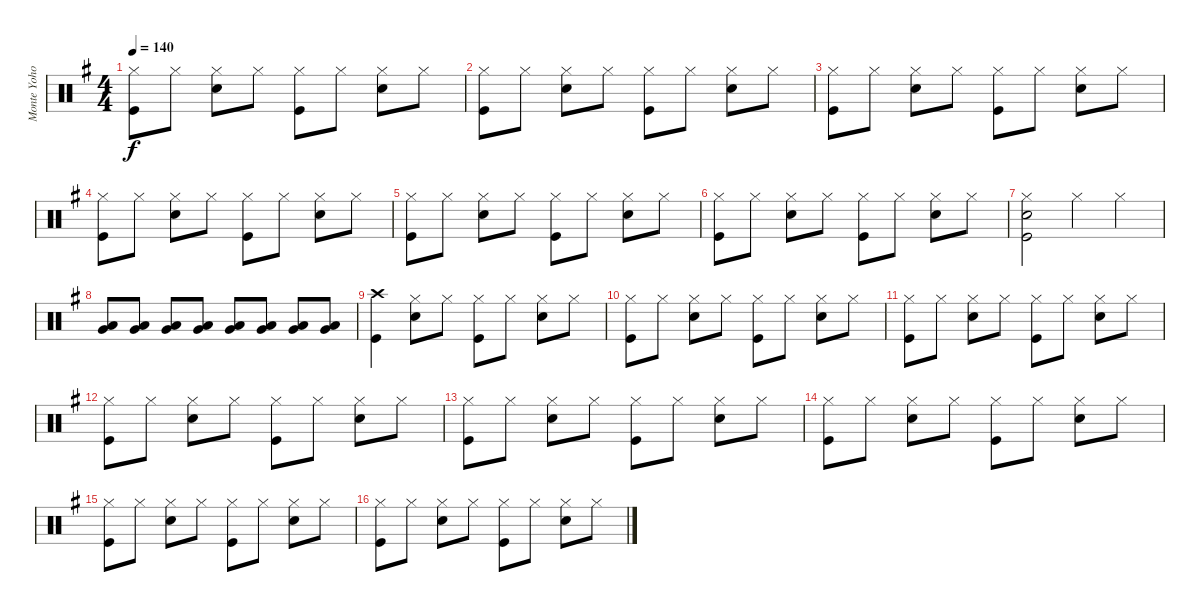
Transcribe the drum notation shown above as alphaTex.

\track ("Monte Yoho Drums" "Monte Yoho") {instrument percussion}
\staff {score}
\articulation defaults
\ts (4 4)
\tempo 140
\clef neutral
\ks g
("Hi-Hat (closed)" "Kick (hit)").8{dy f} "Hi-Hat (closed)".8 ("Hi-Hat (closed)" "Snare (hit) 2").8 "Hi-Hat (closed)".8 ("Hi-Hat (closed)" "Kick (hit)").8 "Hi-Hat (closed)".8 ("Hi-Hat (closed)" "Snare (hit) 2").8 "Hi-Hat (closed)".8 |
("Hi-Hat (closed)" "Kick (hit)").8 "Hi-Hat (closed)".8 ("Hi-Hat (closed)" "Snare (hit) 2").8 "Hi-Hat (closed)".8 ("Hi-Hat (closed)" "Kick (hit)").8 "Hi-Hat (closed)".8 ("Hi-Hat (closed)" "Snare (hit) 2").8 "Hi-Hat (closed)".8 |
("Hi-Hat (closed)" "Kick (hit)").8 "Hi-Hat (closed)".8 ("Hi-Hat (closed)" "Snare (hit) 2").8 "Hi-Hat (closed)".8 ("Hi-Hat (closed)" "Kick (hit)").8 "Hi-Hat (closed)".8 ("Hi-Hat (closed)" "Snare (hit) 2").8 "Hi-Hat (closed)".8 |
("Hi-Hat (closed)" "Kick (hit)").8 "Hi-Hat (closed)".8 ("Hi-Hat (closed)" "Snare (hit) 2").8 "Hi-Hat (closed)".8 ("Hi-Hat (closed)" "Kick (hit)").8 "Hi-Hat (closed)".8 ("Hi-Hat (closed)" "Snare (hit) 2").8 "Hi-Hat (closed)".8 |
("Hi-Hat (closed)" "Kick (hit)").8 "Hi-Hat (closed)".8 ("Hi-Hat (closed)" "Snare (hit) 2").8 "Hi-Hat (closed)".8 ("Hi-Hat (closed)" "Kick (hit)").8 "Hi-Hat (closed)".8 ("Hi-Hat (closed)" "Snare (hit) 2").8 "Hi-Hat (closed)".8 |
("Hi-Hat (closed)" "Kick (hit)").8 "Hi-Hat (closed)".8 ("Hi-Hat (closed)" "Snare (hit) 2").8 "Hi-Hat (closed)".8 ("Hi-Hat (closed)" "Kick (hit)").8 "Hi-Hat (closed)".8 ("Hi-Hat (closed)" "Snare (hit) 2").8 "Hi-Hat (closed)".8 |
("Hi-Hat (closed)" "Snare (hit) 2" "Kick (hit)").2 "Hi-Hat (closed)".4 "Hi-Hat (closed)".4 |
("Very Low Tom (hit)" "Low Floor Tom (hit)").8 ("Very Low Tom (hit)" "Low Floor Tom (hit)").8 ("Very Low Tom (hit)" "Low Floor Tom (hit)").8 ("Very Low Tom (hit)" "Low Floor Tom (hit)").8 ("Very Low Tom (hit)" "Low Floor Tom (hit)").8 ("Very Low Tom (hit)" "Low Floor Tom (hit)").8 ("Very Low Tom (hit)" "Low Floor Tom (hit)").8 ("Very Low Tom (hit)" "Low Floor Tom (hit)").8 |
("Crash high (hit)" "Kick (hit)").4 ("Hi-Hat (closed)" "Snare (hit) 2").8 "Hi-Hat (closed)".8 ("Hi-Hat (closed)" "Kick (hit)").8 "Hi-Hat (closed)".8 ("Hi-Hat (closed)" "Snare (hit) 2").8 "Hi-Hat (closed)".8 |
("Hi-Hat (closed)" "Kick (hit)").8 "Hi-Hat (closed)".8 ("Hi-Hat (closed)" "Snare (hit) 2").8 "Hi-Hat (closed)".8 ("Hi-Hat (closed)" "Kick (hit)").8 "Hi-Hat (closed)".8 ("Hi-Hat (closed)" "Snare (hit) 2").8 "Hi-Hat (closed)".8 |
("Hi-Hat (closed)" "Kick (hit)").8 "Hi-Hat (closed)".8 ("Hi-Hat (closed)" "Snare (hit) 2").8 "Hi-Hat (closed)".8 ("Hi-Hat (closed)" "Kick (hit)").8 "Hi-Hat (closed)".8 ("Hi-Hat (closed)" "Snare (hit) 2").8 "Hi-Hat (closed)".8 |
("Hi-Hat (closed)" "Kick (hit)").8 "Hi-Hat (closed)".8 ("Hi-Hat (closed)" "Snare (hit) 2").8 "Hi-Hat (closed)".8 ("Hi-Hat (closed)" "Kick (hit)").8 "Hi-Hat (closed)".8 ("Hi-Hat (closed)" "Snare (hit) 2").8 "Hi-Hat (closed)".8 |
("Hi-Hat (closed)" "Kick (hit)").8 "Hi-Hat (closed)".8 ("Hi-Hat (closed)" "Snare (hit) 2").8 "Hi-Hat (closed)".8 ("Hi-Hat (closed)" "Kick (hit)").8 "Hi-Hat (closed)".8 ("Hi-Hat (closed)" "Snare (hit) 2").8 "Hi-Hat (closed)".8 |
("Hi-Hat (closed)" "Kick (hit)").8 "Hi-Hat (closed)".8 ("Hi-Hat (closed)" "Snare (hit) 2").8 "Hi-Hat (closed)".8 ("Hi-Hat (closed)" "Kick (hit)").8 "Hi-Hat (closed)".8 ("Hi-Hat (closed)" "Snare (hit) 2").8 "Hi-Hat (closed)".8 |
("Hi-Hat (closed)" "Kick (hit)").8 "Hi-Hat (closed)".8 ("Hi-Hat (closed)" "Snare (hit) 2").8 "Hi-Hat (closed)".8 ("Hi-Hat (closed)" "Kick (hit)").8 "Hi-Hat (closed)".8 ("Hi-Hat (closed)" "Snare (hit) 2").8 "Hi-Hat (closed)".8 |
("Hi-Hat (closed)" "Kick (hit)").8 "Hi-Hat (closed)".8 ("Hi-Hat (closed)" "Snare (hit) 2").8 "Hi-Hat (closed)".8 ("Hi-Hat (closed)" "Kick (hit)").8 "Hi-Hat (closed)".8 ("Hi-Hat (closed)" "Snare (hit) 2").8 "Hi-Hat (closed)".8
